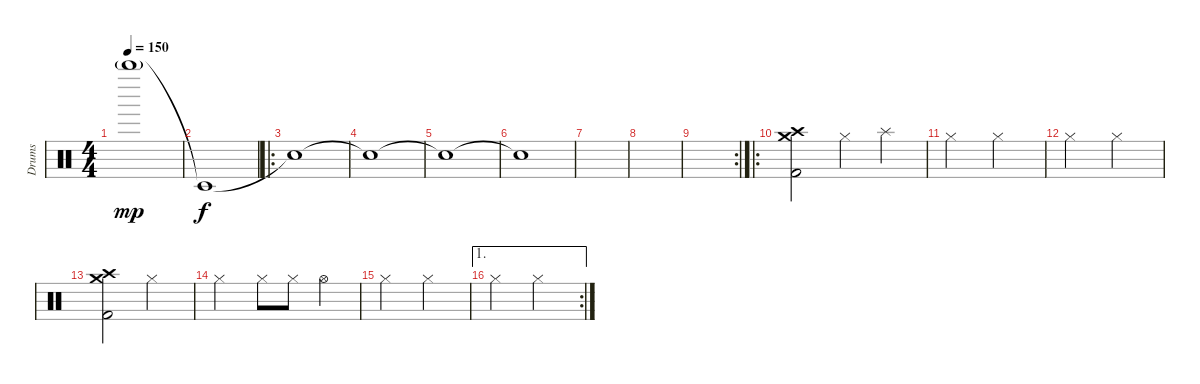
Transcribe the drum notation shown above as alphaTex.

\track ("Drums" "Drums") {instrument percussion}
\staff {score}
\articulation defaults
\ts (4 4)
\tempo 150
\clef neutral
\ks c "Whistle high (hit)"{g}.1{dy mp volume 10}
|
"Timbale low (hit)"{t}.1{dy f} |
\ro "Snare (hit)"{t}.1
|
"Snare (hit)"{t}.1 |
"Snare (hit)"{t}.1 |
"Snare (hit)"{t}.1 |
|
|
\rc 2
|
\ro
("Crash high (hit)" "Crash medium (hit)" "Kick (hit) 2").2{volume 13} "Hi-Hat (closed)".4 "Splash (hit)".4 |
"Hi-Hat (closed)".2 "Hi-Hat (closed)".2 |
"Hi-Hat (closed)".2 "Hi-Hat (closed)".2 |
("Crash high (hit)" "Crash medium (hit)" "Kick (hit) 2").2 "Hi-Hat (closed)".2 |
"Hi-Hat (closed)".2 "Hi-Hat (closed)".8 "Hi-Hat (closed)".8 "Hi-Hat (open)".4 |
"Hi-Hat (closed)".2 "Hi-Hat (closed)".2 |
\ae 1
\rc 2 "Hi-Hat (closed)".2 "Hi-Hat (closed)".2
